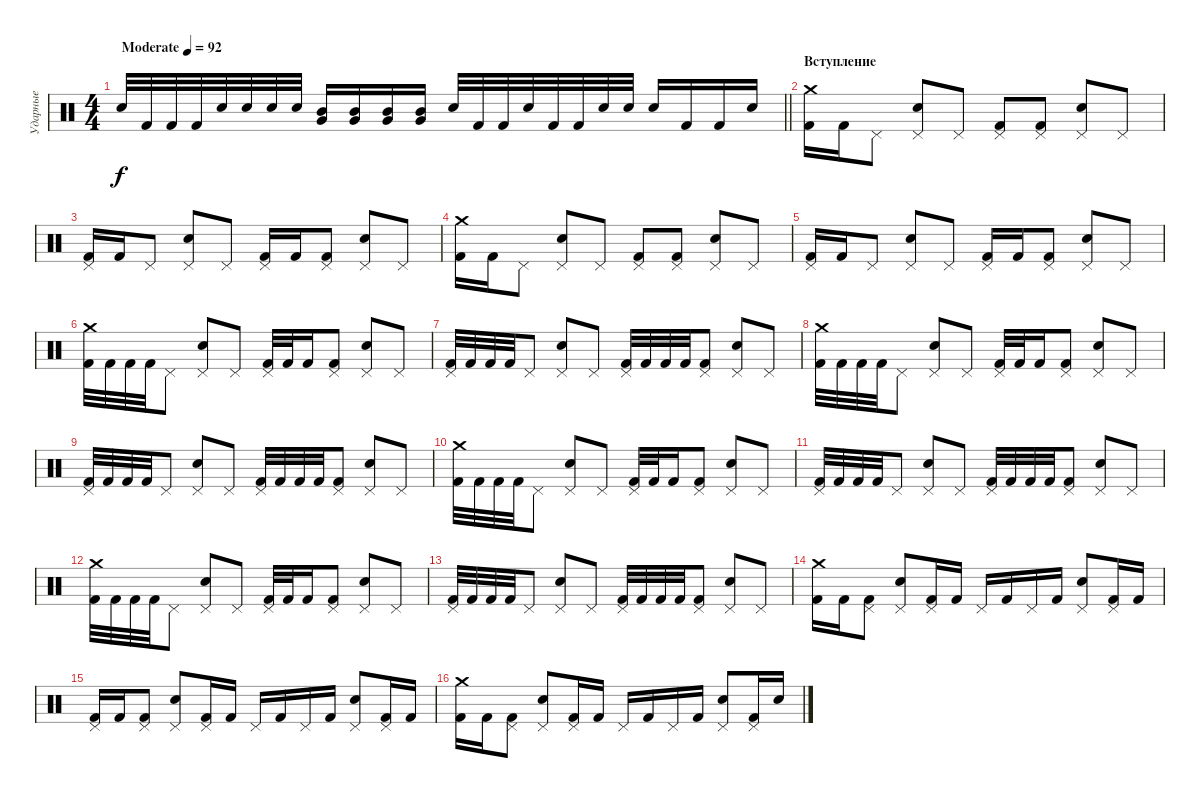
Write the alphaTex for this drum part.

\track ("Ударные" "Ударные") {instrument percussion}
\staff {score}
\articulation defaults
\ts (4 4)
\tempo (92 "Moderate")
\clef neutral
\barLineRight lightlight
\ks c "Electric Snare (hit)".32{dy f} "Kick (hit) 2".32 "Kick (hit) 2".32 "Kick (hit) 2".32 "Electric Snare (hit)".32 "Electric Snare (hit)".32 "Electric Snare (hit)".32 "Electric Snare (hit)".32
("Mid Tom (hit)" "Very Low Tom (hit)").16 ("Mid Tom (hit)" "Very Low Tom (hit)").16 ("Mid Tom (hit)" "Very Low Tom (hit)").16 ("Mid Tom (hit)" "Very Low Tom (hit)").16 "Electric Snare (hit)".32 "Kick (hit) 2".32 "Kick (hit) 2".32 "Electric Snare (hit)".32 "Kick (hit) 2".32 "Kick (hit) 2".32 "Electric Snare (hit)".32 "Electric Snare (hit)".32 "Electric Snare (hit)".16 "Kick (hit) 2".16 "Kick (hit) 2".16 "Electric Snare (hit)".16 |
\section ("" "Вступление")
("Crash medium (hit)" "Kick (hit) 2").16 "Kick (hit) 2".16 "Pedal Hi-Hat (hit)".8 ("Pedal Hi-Hat (hit)" "Electric Snare (hit)").8 "Pedal Hi-Hat (hit)".8 ("Pedal Hi-Hat (hit)" "Kick (hit) 2").8 ("Pedal Hi-Hat (hit)" "Kick (hit) 2").8 ("Pedal Hi-Hat (hit)" "Electric Snare (hit)").8 "Pedal Hi-Hat (hit)".8 |
("Pedal Hi-Hat (hit)" "Kick (hit) 2").16 "Kick (hit) 2".16 "Pedal Hi-Hat (hit)".8 ("Pedal Hi-Hat (hit)" "Electric Snare (hit)").8 "Pedal Hi-Hat (hit)".8 ("Pedal Hi-Hat (hit)" "Kick (hit) 2").16 "Kick (hit) 2".16 ("Pedal Hi-Hat (hit)" "Kick (hit) 2").8 ("Pedal Hi-Hat (hit)" "Electric Snare (hit)").8 "Pedal Hi-Hat (hit)".8 |
("Crash medium (hit)" "Kick (hit) 2").16 "Kick (hit) 2".16 "Pedal Hi-Hat (hit)".8 ("Pedal Hi-Hat (hit)" "Electric Snare (hit)").8 "Pedal Hi-Hat (hit)".8 ("Pedal Hi-Hat (hit)" "Kick (hit) 2").8 ("Pedal Hi-Hat (hit)" "Kick (hit) 2").8 ("Pedal Hi-Hat (hit)" "Electric Snare (hit)").8 "Pedal Hi-Hat (hit)".8 |
("Pedal Hi-Hat (hit)" "Kick (hit) 2").16 "Kick (hit) 2".16 "Pedal Hi-Hat (hit)".8 ("Pedal Hi-Hat (hit)" "Electric Snare (hit)").8 "Pedal Hi-Hat (hit)".8 ("Pedal Hi-Hat (hit)" "Kick (hit) 2").16 "Kick (hit) 2".16 ("Pedal Hi-Hat (hit)" "Kick (hit) 2").8 ("Pedal Hi-Hat (hit)" "Electric Snare (hit)").8 "Pedal Hi-Hat (hit)".8 |
("Crash medium (hit)" "Kick (hit) 2").32 "Kick (hit) 2".32 "Kick (hit) 2".32 "Kick (hit) 2".32 "Pedal Hi-Hat (hit)".8 ("Pedal Hi-Hat (hit)" "Electric Snare (hit)").8 "Pedal Hi-Hat (hit)".8 ("Pedal Hi-Hat (hit)" "Kick (hit) 2").32 "Kick (hit) 2".32 "Kick (hit) 2".16 ("Pedal Hi-Hat (hit)" "Kick (hit) 2").8 ("Pedal Hi-Hat (hit)" "Electric Snare (hit)").8 "Pedal Hi-Hat (hit)".8 |
("Pedal Hi-Hat (hit)" "Kick (hit) 2").32 "Kick (hit) 2".32 "Kick (hit) 2".32 "Kick (hit) 2".32 "Pedal Hi-Hat (hit)".8 ("Pedal Hi-Hat (hit)" "Electric Snare (hit)").8 "Pedal Hi-Hat (hit)".8 ("Pedal Hi-Hat (hit)" "Kick (hit) 2").32 "Kick (hit) 2".32 "Kick (hit) 2".32 "Kick (hit) 2".32 ("Pedal Hi-Hat (hit)" "Kick (hit) 2").8 ("Pedal Hi-Hat (hit)" "Electric Snare (hit)").8 "Pedal Hi-Hat (hit)".8 |
("Crash medium (hit)" "Kick (hit) 2").32 "Kick (hit) 2".32 "Kick (hit) 2".32 "Kick (hit) 2".32 "Pedal Hi-Hat (hit)".8 ("Pedal Hi-Hat (hit)" "Electric Snare (hit)").8 "Pedal Hi-Hat (hit)".8 ("Pedal Hi-Hat (hit)" "Kick (hit) 2").32 "Kick (hit) 2".32 "Kick (hit) 2".16 ("Pedal Hi-Hat (hit)" "Kick (hit) 2").8 ("Pedal Hi-Hat (hit)" "Electric Snare (hit)").8 "Pedal Hi-Hat (hit)".8 |
("Pedal Hi-Hat (hit)" "Kick (hit) 2").32 "Kick (hit) 2".32 "Kick (hit) 2".32 "Kick (hit) 2".32 "Pedal Hi-Hat (hit)".8 ("Pedal Hi-Hat (hit)" "Electric Snare (hit)").8 "Pedal Hi-Hat (hit)".8 ("Pedal Hi-Hat (hit)" "Kick (hit) 2").32 "Kick (hit) 2".32 "Kick (hit) 2".32 "Kick (hit) 2".32 ("Pedal Hi-Hat (hit)" "Kick (hit) 2").8 ("Pedal Hi-Hat (hit)" "Electric Snare (hit)").8 "Pedal Hi-Hat (hit)".8 |
("Crash medium (hit)" "Kick (hit) 2").32 "Kick (hit) 2".32 "Kick (hit) 2".32 "Kick (hit) 2".32 "Pedal Hi-Hat (hit)".8 ("Pedal Hi-Hat (hit)" "Electric Snare (hit)").8 "Pedal Hi-Hat (hit)".8 ("Pedal Hi-Hat (hit)" "Kick (hit) 2").32 "Kick (hit) 2".32 "Kick (hit) 2".16 ("Pedal Hi-Hat (hit)" "Kick (hit) 2").8 ("Pedal Hi-Hat (hit)" "Electric Snare (hit)").8 "Pedal Hi-Hat (hit)".8 |
("Pedal Hi-Hat (hit)" "Kick (hit) 2").32 "Kick (hit) 2".32 "Kick (hit) 2".32 "Kick (hit) 2".32 "Pedal Hi-Hat (hit)".8 ("Pedal Hi-Hat (hit)" "Electric Snare (hit)").8 "Pedal Hi-Hat (hit)".8 ("Pedal Hi-Hat (hit)" "Kick (hit) 2").32 "Kick (hit) 2".32 "Kick (hit) 2".32 "Kick (hit) 2".32 ("Pedal Hi-Hat (hit)" "Kick (hit) 2").8 ("Pedal Hi-Hat (hit)" "Electric Snare (hit)").8 "Pedal Hi-Hat (hit)".8 |
("Crash medium (hit)" "Kick (hit) 2").32 "Kick (hit) 2".32 "Kick (hit) 2".32 "Kick (hit) 2".32 "Pedal Hi-Hat (hit)".8 ("Pedal Hi-Hat (hit)" "Electric Snare (hit)").8 "Pedal Hi-Hat (hit)".8 ("Pedal Hi-Hat (hit)" "Kick (hit) 2").32 "Kick (hit) 2".32 "Kick (hit) 2".16 ("Pedal Hi-Hat (hit)" "Kick (hit) 2").8 ("Pedal Hi-Hat (hit)" "Electric Snare (hit)").8 "Pedal Hi-Hat (hit)".8 |
("Pedal Hi-Hat (hit)" "Kick (hit) 2").32 "Kick (hit) 2".32 "Kick (hit) 2".32 "Kick (hit) 2".32 "Pedal Hi-Hat (hit)".8 ("Pedal Hi-Hat (hit)" "Electric Snare (hit)").8 "Pedal Hi-Hat (hit)".8 ("Pedal Hi-Hat (hit)" "Kick (hit) 2").32 "Kick (hit) 2".32 "Kick (hit) 2".32 "Kick (hit) 2".32 ("Pedal Hi-Hat (hit)" "Kick (hit) 2").8 ("Pedal Hi-Hat (hit)" "Electric Snare (hit)").8 "Pedal Hi-Hat (hit)".8 |
("Crash medium (hit)" "Kick (hit) 2").16 "Kick (hit) 2".16 ("Kick (hit) 2" "Pedal Hi-Hat (hit)").8 ("Electric Snare (hit)" "Pedal Hi-Hat (hit)").8 ("Kick (hit) 2" "Pedal Hi-Hat (hit)").16 "Kick (hit) 2".16 "Pedal Hi-Hat (hit)".16 "Kick (hit) 2".16 "Pedal Hi-Hat (hit)".16 "Kick (hit) 2".16 ("Electric Snare (hit)" "Pedal Hi-Hat (hit)").8 ("Kick (hit) 2" "Pedal Hi-Hat (hit)").16 "Kick (hit) 2".16 |
("Kick (hit) 2" "Pedal Hi-Hat (hit)").16 "Kick (hit) 2".16 ("Kick (hit) 2" "Pedal Hi-Hat (hit)").8 ("Electric Snare (hit)" "Pedal Hi-Hat (hit)").8 ("Kick (hit) 2" "Pedal Hi-Hat (hit)").16 "Kick (hit) 2".16 "Pedal Hi-Hat (hit)".16 "Kick (hit) 2".16 "Pedal Hi-Hat (hit)".16 "Kick (hit) 2".16 ("Electric Snare (hit)" "Pedal Hi-Hat (hit)").8 ("Kick (hit) 2" "Pedal Hi-Hat (hit)").16 "Kick (hit) 2".16 |
("Crash medium (hit)" "Kick (hit) 2").16 "Kick (hit) 2".16 ("Kick (hit) 2" "Pedal Hi-Hat (hit)").8 ("Electric Snare (hit)" "Pedal Hi-Hat (hit)").8 ("Kick (hit) 2" "Pedal Hi-Hat (hit)").16 "Kick (hit) 2".16 "Pedal Hi-Hat (hit)".16 "Kick (hit) 2".16 "Pedal Hi-Hat (hit)".16 "Kick (hit) 2".16 ("Electric Snare (hit)" "Pedal Hi-Hat (hit)").8 ("Kick (hit) 2" "Pedal Hi-Hat (hit)").16 "Electric Snare (hit)".16
